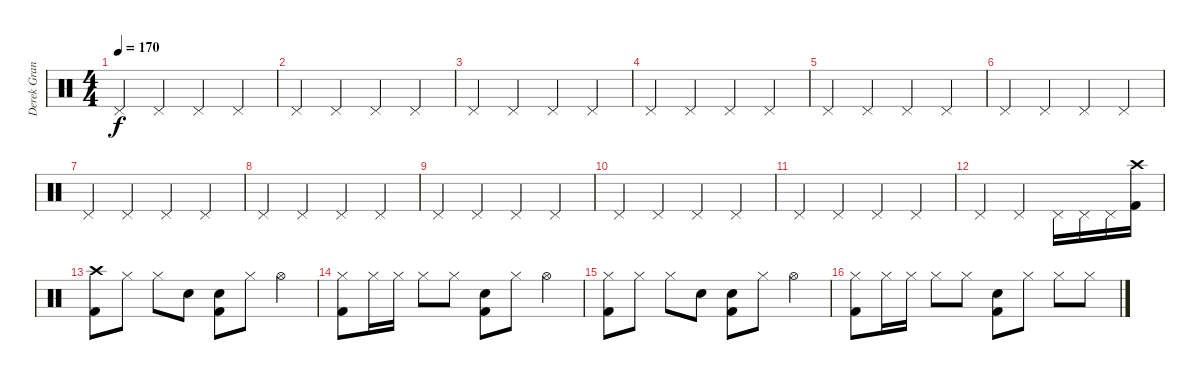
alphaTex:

\track ("Derek Grant" "Derek Gran") {instrument percussion}
\staff {score}
\articulation defaults
\ts (4 4)
\tempo 170
\clef neutral
\ks c "Pedal Hi-Hat (hit)".4{dy f} "Pedal Hi-Hat (hit)".4 "Pedal Hi-Hat (hit)".4 "Pedal Hi-Hat (hit)".4
|
"Pedal Hi-Hat (hit)".4 "Pedal Hi-Hat (hit)".4 "Pedal Hi-Hat (hit)".4 "Pedal Hi-Hat (hit)".4 |
"Pedal Hi-Hat (hit)".4 "Pedal Hi-Hat (hit)".4 "Pedal Hi-Hat (hit)".4 "Pedal Hi-Hat (hit)".4 |
"Pedal Hi-Hat (hit)".4 "Pedal Hi-Hat (hit)".4 "Pedal Hi-Hat (hit)".4 "Pedal Hi-Hat (hit)".4 |
"Pedal Hi-Hat (hit)".4 "Pedal Hi-Hat (hit)".4 "Pedal Hi-Hat (hit)".4 "Pedal Hi-Hat (hit)".4 |
"Pedal Hi-Hat (hit)".4 "Pedal Hi-Hat (hit)".4 "Pedal Hi-Hat (hit)".4 "Pedal Hi-Hat (hit)".4 |
"Pedal Hi-Hat (hit)".4 "Pedal Hi-Hat (hit)".4 "Pedal Hi-Hat (hit)".4 "Pedal Hi-Hat (hit)".4 |
"Pedal Hi-Hat (hit)".4 "Pedal Hi-Hat (hit)".4 "Pedal Hi-Hat (hit)".4 "Pedal Hi-Hat (hit)".4 |
"Pedal Hi-Hat (hit)".4 "Pedal Hi-Hat (hit)".4 "Pedal Hi-Hat (hit)".4 "Pedal Hi-Hat (hit)".4 |
"Pedal Hi-Hat (hit)".4 "Pedal Hi-Hat (hit)".4 "Pedal Hi-Hat (hit)".4 "Pedal Hi-Hat (hit)".4 |
"Pedal Hi-Hat (hit)".4 "Pedal Hi-Hat (hit)".4 "Pedal Hi-Hat (hit)".4 "Pedal Hi-Hat (hit)".4 |
"Pedal Hi-Hat (hit)".4 "Pedal Hi-Hat (hit)".4 "Pedal Hi-Hat (hit)".16 "Pedal Hi-Hat (hit)".16 "Pedal Hi-Hat (hit)".16 ("Crash high (hit)" "Kick (hit) 2").16 |
("Crash high (hit)" "Kick (hit) 2").8 "Hi-Hat (closed)".8 "Hi-Hat (closed)".8 "Snare (hit) 2".8 ("Snare (hit) 2" "Kick (hit) 2").8 "Hi-Hat (closed)".8 "Hi-Hat (open)".4 |
("Hi-Hat (closed)" "Kick (hit) 2").8 "Hi-Hat (closed)".16 "Hi-Hat (closed)".16 "Hi-Hat (closed)".8 "Hi-Hat (closed)".8 ("Snare (hit) 2" "Kick (hit) 2").8 "Hi-Hat (closed)".8 "Hi-Hat (open)".4 |
("Hi-Hat (closed)" "Kick (hit) 2").8 "Hi-Hat (closed)".8 "Hi-Hat (closed)".8 "Snare (hit) 2".8 ("Snare (hit) 2" "Kick (hit) 2").8 "Hi-Hat (closed)".8 "Hi-Hat (open)".4 |
("Hi-Hat (closed)" "Kick (hit) 2").8 "Hi-Hat (closed)".16 "Hi-Hat (closed)".16 "Hi-Hat (closed)".8 "Hi-Hat (closed)".8 ("Snare (hit) 2" "Kick (hit) 2").8 "Hi-Hat (closed)".8 "Hi-Hat (closed)".8 "Hi-Hat (closed)".8
